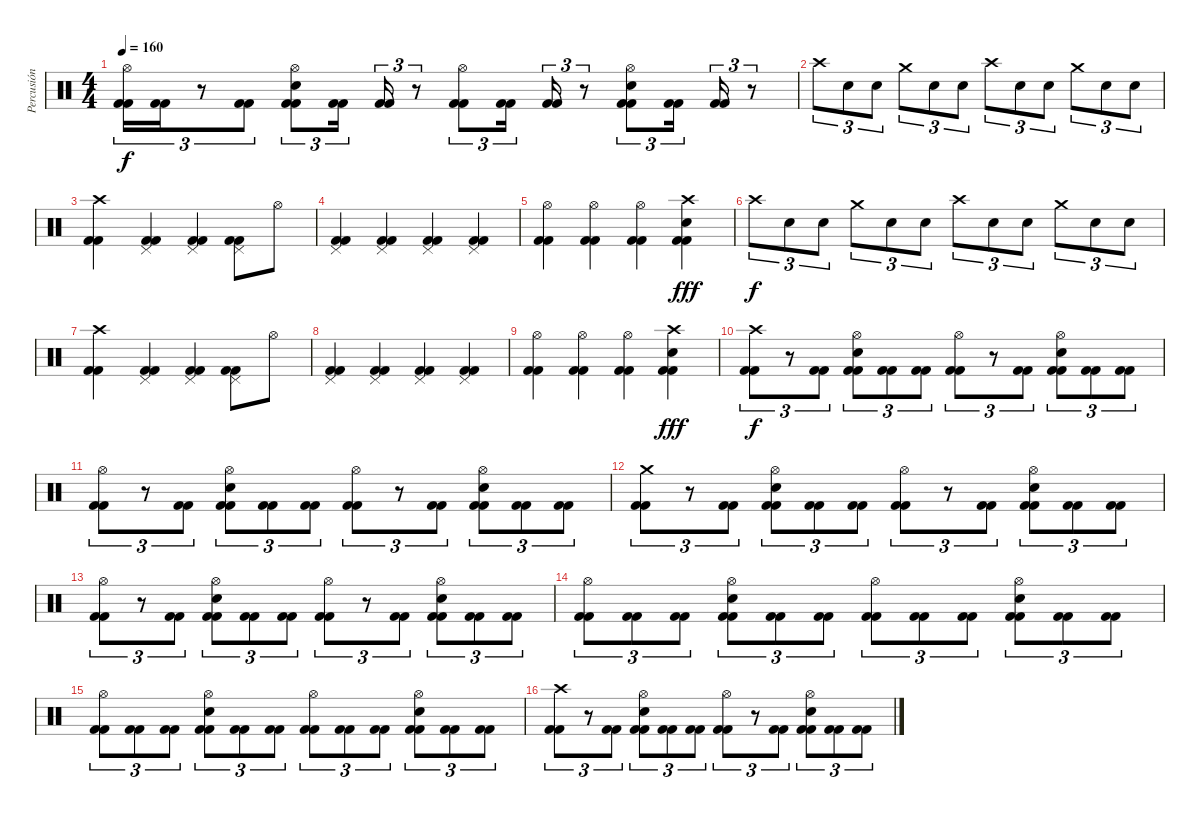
\track ("Percusión" "Percusión") {instrument percussion}
\staff {score}
\articulation defaults
\ts (4 4)
\tempo 160
\clef neutral
\ks c
("Hi-Hat (open)" "Kick (hit) 2" "Kick (hit) 2").16{tu (3 2) dy f} ("Kick (hit) 2" "Kick (hit) 2").16{tu (3 2)} r.8{tu (3 2)} ("Kick (hit) 2" "Kick (hit) 2").8{tu (3 2)} ("Hi-Hat (open)" "Snare (hit) 2" "Kick (hit) 2" "Kick (hit) 2").8{tu (3 2)} ("Kick (hit) 2" "Kick (hit) 2").16{tu (3 2)} ("Kick (hit) 2" "Kick (hit) 2").16{tu (3 2)} r.8{tu (3 2)} ("Hi-Hat (open)" "Kick (hit) 2" "Kick (hit) 2").8{tu (3 2)} ("Kick (hit) 2" "Kick (hit) 2").16{tu (3 2)} ("Kick (hit) 2" "Kick (hit) 2").16{tu (3 2)} r.8{tu (3 2)} ("Hi-Hat (open)" "Snare (hit) 2" "Kick (hit) 2" "Kick (hit) 2").8{tu (3 2)} ("Kick (hit) 2" "Kick (hit) 2").16{tu (3 2)} ("Kick (hit) 2" "Kick (hit) 2").16{tu (3 2)} r.8{tu (3 2)} |
"Crash high (hit)".8{tu (3 2)} "Snare (hit) 2".8{tu (3 2)} "Snare (hit) 2".8{tu (3 2)} "Crash medium (hit)".8{tu (3 2)} "Snare (hit) 2".8{tu (3 2)} "Snare (hit) 2".8{tu (3 2)} "Crash high (hit)".8{tu (3 2)} "Snare (hit) 2".8{tu (3 2)} "Snare (hit) 2".8{tu (3 2)} "Crash medium (hit)".8{tu (3 2)} "Snare (hit) 2".8{tu (3 2)} "Snare (hit) 2".8{tu (3 2)} |
("Crash high (hit)" "Kick (hit) 2" "Kick (hit) 2").4 ("Pedal Hi-Hat (hit)" "Kick (hit) 2" "Kick (hit) 2").4 ("Pedal Hi-Hat (hit)" "Kick (hit) 2" "Kick (hit) 2").4 ("Pedal Hi-Hat (hit)" "Kick (hit) 2" "Kick (hit) 2").8 "Hi-Hat (open)".8 |
("Pedal Hi-Hat (hit)" "Kick (hit) 2" "Kick (hit) 2").4 ("Pedal Hi-Hat (hit)" "Kick (hit) 2" "Kick (hit) 2").4 ("Pedal Hi-Hat (hit)" "Kick (hit) 2" "Kick (hit) 2").4 ("Pedal Hi-Hat (hit)" "Kick (hit) 2" "Kick (hit) 2").4 |
("Hi-Hat (open)" "Kick (hit) 2" "Kick (hit) 2").4 ("Hi-Hat (open)" "Kick (hit) 2" "Kick (hit) 2").4 ("Hi-Hat (open)" "Kick (hit) 2" "Kick (hit) 2").4 ("Crash high (hit)" "Snare (hit) 2" "Kick (hit) 2" "Kick (hit) 2").4{dy fff} |
"Crash high (hit)".8{tu (3 2) dy f} "Snare (hit) 2".8{tu (3 2)} "Snare (hit) 2".8{tu (3 2)} "Crash medium (hit)".8{tu (3 2)} "Snare (hit) 2".8{tu (3 2)} "Snare (hit) 2".8{tu (3 2)} "Crash high (hit)".8{tu (3 2)} "Snare (hit) 2".8{tu (3 2)} "Snare (hit) 2".8{tu (3 2)} "Crash medium (hit)".8{tu (3 2)} "Snare (hit) 2".8{tu (3 2)} "Snare (hit) 2".8{tu (3 2)} |
("Crash high (hit)" "Kick (hit) 2" "Kick (hit) 2").4 ("Pedal Hi-Hat (hit)" "Kick (hit) 2" "Kick (hit) 2").4 ("Pedal Hi-Hat (hit)" "Kick (hit) 2" "Kick (hit) 2").4 ("Pedal Hi-Hat (hit)" "Kick (hit) 2" "Kick (hit) 2").8 "Hi-Hat (open)".8 |
("Pedal Hi-Hat (hit)" "Kick (hit) 2" "Kick (hit) 2").4 ("Pedal Hi-Hat (hit)" "Kick (hit) 2" "Kick (hit) 2").4 ("Pedal Hi-Hat (hit)" "Kick (hit) 2" "Kick (hit) 2").4 ("Pedal Hi-Hat (hit)" "Kick (hit) 2" "Kick (hit) 2").4 |
("Hi-Hat (open)" "Kick (hit) 2" "Kick (hit) 2").4 ("Hi-Hat (open)" "Kick (hit) 2" "Kick (hit) 2").4 ("Hi-Hat (open)" "Kick (hit) 2" "Kick (hit) 2").4 ("Crash high (hit)" "Snare (hit) 2" "Kick (hit) 2" "Kick (hit) 2").4{dy fff} |
("Crash high (hit)" "Kick (hit) 2" "Kick (hit) 2").8{tu (3 2) dy f} r.8{tu (3 2)} ("Kick (hit) 2" "Kick (hit) 2").8{tu (3 2)} ("Hi-Hat (open)" "Snare (hit) 2" "Kick (hit) 2" "Kick (hit) 2").8{tu (3 2)} ("Kick (hit) 2" "Kick (hit) 2").8{tu (3 2)} ("Kick (hit) 2" "Kick (hit) 2").8{tu (3 2)} ("Hi-Hat (open)" "Kick (hit) 2" "Kick (hit) 2").8{tu (3 2)} r.8{tu (3 2)} ("Kick (hit) 2" "Kick (hit) 2").8{tu (3 2)} ("Hi-Hat (open)" "Snare (hit) 2" "Kick (hit) 2" "Kick (hit) 2").8{tu (3 2)} ("Kick (hit) 2" "Kick (hit) 2").8{tu (3 2)} ("Kick (hit) 2" "Kick (hit) 2").8{tu (3 2)} |
("Hi-Hat (open)" "Kick (hit) 2" "Kick (hit) 2").8{tu (3 2)} r.8{tu (3 2)} ("Kick (hit) 2" "Kick (hit) 2").8{tu (3 2)} ("Hi-Hat (open)" "Snare (hit) 2" "Kick (hit) 2" "Kick (hit) 2").8{tu (3 2)} ("Kick (hit) 2" "Kick (hit) 2").8{tu (3 2)} ("Kick (hit) 2" "Kick (hit) 2").8{tu (3 2)} ("Hi-Hat (open)" "Kick (hit) 2" "Kick (hit) 2").8{tu (3 2)} r.8{tu (3 2)} ("Kick (hit) 2" "Kick (hit) 2").8{tu (3 2)} ("Hi-Hat (open)" "Snare (hit) 2" "Kick (hit) 2" "Kick (hit) 2").8{tu (3 2)} ("Kick (hit) 2" "Kick (hit) 2").8{tu (3 2)} ("Kick (hit) 2" "Kick (hit) 2").8{tu (3 2)} |
("Crash medium (hit)" "Kick (hit) 2" "Kick (hit) 2").8{tu (3 2)} r.8{tu (3 2)} ("Kick (hit) 2" "Kick (hit) 2").8{tu (3 2)} ("Hi-Hat (open)" "Snare (hit) 2" "Kick (hit) 2" "Kick (hit) 2").8{tu (3 2)} ("Kick (hit) 2" "Kick (hit) 2").8{tu (3 2)} ("Kick (hit) 2" "Kick (hit) 2").8{tu (3 2)} ("Hi-Hat (open)" "Kick (hit) 2" "Kick (hit) 2").8{tu (3 2)} r.8{tu (3 2)} ("Kick (hit) 2" "Kick (hit) 2").8{tu (3 2)} ("Hi-Hat (open)" "Snare (hit) 2" "Kick (hit) 2" "Kick (hit) 2").8{tu (3 2)} ("Kick (hit) 2" "Kick (hit) 2").8{tu (3 2)} ("Kick (hit) 2" "Kick (hit) 2").8{tu (3 2)} |
("Hi-Hat (open)" "Kick (hit) 2" "Kick (hit) 2").8{tu (3 2)} r.8{tu (3 2)} ("Kick (hit) 2" "Kick (hit) 2").8{tu (3 2)} ("Hi-Hat (open)" "Snare (hit) 2" "Kick (hit) 2" "Kick (hit) 2").8{tu (3 2)} ("Kick (hit) 2" "Kick (hit) 2").8{tu (3 2)} ("Kick (hit) 2" "Kick (hit) 2").8{tu (3 2)} ("Hi-Hat (open)" "Kick (hit) 2" "Kick (hit) 2").8{tu (3 2)} r.8{tu (3 2)} ("Kick (hit) 2" "Kick (hit) 2").8{tu (3 2)} ("Hi-Hat (open)" "Snare (hit) 2" "Kick (hit) 2" "Kick (hit) 2").8{tu (3 2)} ("Kick (hit) 2" "Kick (hit) 2").8{tu (3 2)} ("Kick (hit) 2" "Kick (hit) 2").8{tu (3 2)} |
("Hi-Hat (open)" "Kick (hit) 2" "Kick (hit) 2").8{tu (3 2)} ("Kick (hit) 2" "Kick (hit) 2").8{tu (3 2)} ("Kick (hit) 2" "Kick (hit) 2").8{tu (3 2)} ("Hi-Hat (open)" "Snare (hit) 2" "Kick (hit) 2" "Kick (hit) 2").8{tu (3 2)} ("Kick (hit) 2" "Kick (hit) 2").8{tu (3 2)} ("Kick (hit) 2" "Kick (hit) 2").8{tu (3 2)} ("Hi-Hat (open)" "Kick (hit) 2" "Kick (hit) 2").8{tu (3 2)} ("Kick (hit) 2" "Kick (hit) 2").8{tu (3 2)} ("Kick (hit) 2" "Kick (hit) 2").8{tu (3 2)} ("Hi-Hat (open)" "Snare (hit) 2" "Kick (hit) 2" "Kick (hit) 2").8{tu (3 2)} ("Kick (hit) 2" "Kick (hit) 2").8{tu (3 2)} ("Kick (hit) 2" "Kick (hit) 2").8{tu (3 2)} |
("Hi-Hat (open)" "Kick (hit) 2" "Kick (hit) 2").8{tu (3 2)} ("Kick (hit) 2" "Kick (hit) 2").8{tu (3 2)} ("Kick (hit) 2" "Kick (hit) 2").8{tu (3 2)} ("Hi-Hat (open)" "Snare (hit) 2" "Kick (hit) 2" "Kick (hit) 2").8{tu (3 2)} ("Kick (hit) 2" "Kick (hit) 2").8{tu (3 2)} ("Kick (hit) 2" "Kick (hit) 2").8{tu (3 2)} ("Hi-Hat (open)" "Kick (hit) 2" "Kick (hit) 2").8{tu (3 2)} ("Kick (hit) 2" "Kick (hit) 2").8{tu (3 2)} ("Kick (hit) 2" "Kick (hit) 2").8{tu (3 2)} ("Hi-Hat (open)" "Snare (hit) 2" "Kick (hit) 2" "Kick (hit) 2").8{tu (3 2)} ("Kick (hit) 2" "Kick (hit) 2").8{tu (3 2)} ("Kick (hit) 2" "Kick (hit) 2").8{tu (3 2)} |
("Crash high (hit)" "Kick (hit) 2" "Kick (hit) 2").8{tu (3 2)} r.8{tu (3 2)} ("Kick (hit) 2" "Kick (hit) 2").8{tu (3 2)} ("Hi-Hat (open)" "Snare (hit) 2" "Kick (hit) 2" "Kick (hit) 2").8{tu (3 2)} ("Kick (hit) 2" "Kick (hit) 2").8{tu (3 2)} ("Kick (hit) 2" "Kick (hit) 2").8{tu (3 2)} ("Hi-Hat (open)" "Kick (hit) 2" "Kick (hit) 2").8{tu (3 2)} r.8{tu (3 2)} ("Kick (hit) 2" "Kick (hit) 2").8{tu (3 2)} ("Hi-Hat (open)" "Snare (hit) 2" "Kick (hit) 2" "Kick (hit) 2").8{tu (3 2)} ("Kick (hit) 2" "Kick (hit) 2").8{tu (3 2)} ("Kick (hit) 2" "Kick (hit) 2").8{tu (3 2)}
